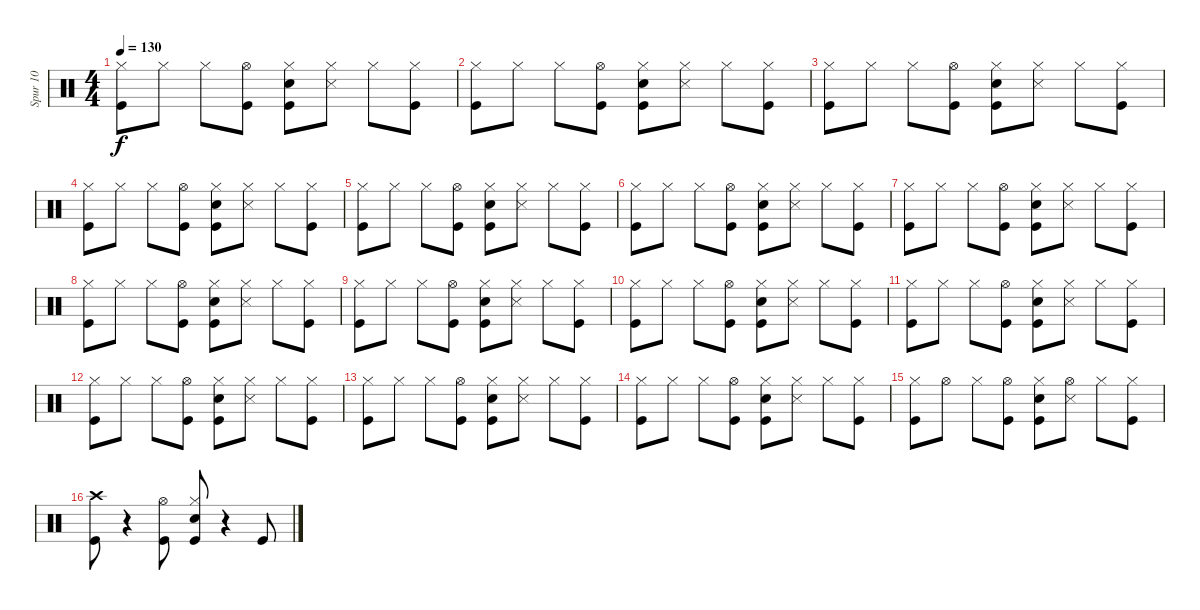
\track ("Spur 10" "Spur 10") {instrument percussion}
\staff {score}
\articulation defaults
\ts (4 4)
\tempo 130
\clef neutral
\ks c
("Kick (hit)" "Hi-Hat (closed)").8{dy f} "Hi-Hat (closed)".8 "Hi-Hat (closed)".8 ("Kick (hit)" "Hi-Hat (open)").8 ("Snare (hit) 2" "Kick (hit)" "Hi-Hat (closed)").8 ("Snare (side stick) 3" "Hi-Hat (closed)").8 "Hi-Hat (closed)".8 ("Kick (hit)" "Hi-Hat (closed)").8 |
("Kick (hit)" "Hi-Hat (closed)").8 "Hi-Hat (closed)".8 "Hi-Hat (closed)".8 ("Kick (hit)" "Hi-Hat (open)").8 ("Snare (hit) 2" "Kick (hit)" "Hi-Hat (closed)").8 ("Snare (side stick) 3" "Hi-Hat (closed)").8 "Hi-Hat (closed)".8 ("Kick (hit)" "Hi-Hat (closed)").8 |
("Kick (hit)" "Hi-Hat (closed)").8 "Hi-Hat (closed)".8 "Hi-Hat (closed)".8 ("Kick (hit)" "Hi-Hat (open)").8 ("Snare (hit) 2" "Kick (hit)" "Hi-Hat (closed)").8 ("Snare (side stick) 3" "Hi-Hat (closed)").8 "Hi-Hat (closed)".8 ("Kick (hit)" "Hi-Hat (closed)").8 |
("Kick (hit)" "Hi-Hat (closed)").8 "Hi-Hat (closed)".8 "Hi-Hat (closed)".8 ("Kick (hit)" "Hi-Hat (open)").8 ("Snare (hit) 2" "Kick (hit)" "Hi-Hat (closed)").8 ("Snare (side stick) 3" "Hi-Hat (closed)").8 "Hi-Hat (closed)".8 ("Kick (hit)" "Hi-Hat (closed)").8 |
("Kick (hit)" "Hi-Hat (closed)").8 "Hi-Hat (closed)".8 "Hi-Hat (closed)".8 ("Kick (hit)" "Hi-Hat (open)").8 ("Snare (hit) 2" "Kick (hit)" "Hi-Hat (closed)").8 ("Snare (side stick) 3" "Hi-Hat (closed)").8 "Hi-Hat (closed)".8 ("Kick (hit)" "Hi-Hat (closed)").8 |
("Kick (hit)" "Hi-Hat (closed)").8 "Hi-Hat (closed)".8 "Hi-Hat (closed)".8 ("Kick (hit)" "Hi-Hat (open)").8 ("Snare (hit) 2" "Kick (hit)" "Hi-Hat (closed)").8 ("Snare (side stick) 3" "Hi-Hat (closed)").8 "Hi-Hat (closed)".8 ("Kick (hit)" "Hi-Hat (closed)").8 |
("Kick (hit)" "Hi-Hat (closed)").8 "Hi-Hat (closed)".8 "Hi-Hat (closed)".8 ("Kick (hit)" "Hi-Hat (open)").8 ("Snare (hit) 2" "Kick (hit)" "Hi-Hat (closed)").8 ("Snare (side stick) 3" "Hi-Hat (closed)").8 "Hi-Hat (closed)".8 ("Kick (hit)" "Hi-Hat (closed)").8 |
("Kick (hit)" "Hi-Hat (closed)").8 "Hi-Hat (closed)".8 "Hi-Hat (closed)".8 ("Kick (hit)" "Hi-Hat (open)").8 ("Snare (hit) 2" "Kick (hit)" "Hi-Hat (closed)").8 ("Snare (side stick) 3" "Hi-Hat (closed)").8 "Hi-Hat (closed)".8 ("Kick (hit)" "Hi-Hat (closed)").8 |
("Kick (hit)" "Hi-Hat (closed)").8 "Hi-Hat (closed)".8 "Hi-Hat (closed)".8 ("Kick (hit)" "Hi-Hat (open)").8 ("Snare (hit) 2" "Kick (hit)" "Hi-Hat (closed)").8 ("Snare (side stick) 3" "Hi-Hat (closed)").8 "Hi-Hat (closed)".8 ("Kick (hit)" "Hi-Hat (closed)").8 |
("Kick (hit)" "Hi-Hat (closed)").8 "Hi-Hat (closed)".8 "Hi-Hat (closed)".8 ("Kick (hit)" "Hi-Hat (open)").8 ("Snare (hit) 2" "Kick (hit)" "Hi-Hat (closed)").8 ("Snare (side stick) 3" "Hi-Hat (closed)").8 "Hi-Hat (closed)".8 ("Kick (hit)" "Hi-Hat (closed)").8 |
("Kick (hit)" "Hi-Hat (closed)").8 "Hi-Hat (closed)".8 "Hi-Hat (closed)".8 ("Kick (hit)" "Hi-Hat (open)").8 ("Snare (hit) 2" "Kick (hit)" "Hi-Hat (closed)").8 ("Snare (side stick) 3" "Hi-Hat (closed)").8 "Hi-Hat (closed)".8 ("Kick (hit)" "Hi-Hat (closed)").8 |
("Kick (hit)" "Hi-Hat (closed)").8 "Hi-Hat (closed)".8 "Hi-Hat (closed)".8 ("Kick (hit)" "Hi-Hat (open)").8 ("Snare (hit) 2" "Kick (hit)" "Hi-Hat (closed)").8 ("Snare (side stick) 3" "Hi-Hat (closed)").8 "Hi-Hat (closed)".8 ("Kick (hit)" "Hi-Hat (closed)").8 |
("Kick (hit)" "Hi-Hat (closed)").8 "Hi-Hat (closed)".8 "Hi-Hat (closed)".8 ("Kick (hit)" "Hi-Hat (open)").8 ("Snare (hit) 2" "Kick (hit)" "Hi-Hat (closed)").8 ("Snare (side stick) 3" "Hi-Hat (closed)").8 "Hi-Hat (closed)".8 ("Kick (hit)" "Hi-Hat (closed)").8 |
("Kick (hit)" "Hi-Hat (closed)").8 "Hi-Hat (closed)".8 "Hi-Hat (closed)".8 ("Kick (hit)" "Hi-Hat (open)").8 ("Snare (hit) 2" "Kick (hit)" "Hi-Hat (closed)").8 ("Snare (side stick) 3" "Hi-Hat (closed)").8 "Hi-Hat (closed)".8 ("Kick (hit)" "Hi-Hat (closed)").8 |
("Kick (hit)" "Hi-Hat (closed)").8 "Hi-Hat (open)".8 "Hi-Hat (closed)".8 ("Kick (hit)" "Hi-Hat (open)").8 ("Snare (hit) 2" "Kick (hit)" "Hi-Hat (closed)").8 ("Snare (side stick) 3" "Hi-Hat (open)").8 "Hi-Hat (closed)".8 ("Kick (hit)" "Hi-Hat (closed)").8 |
("Kick (hit)" "Crash high (hit)").8 r.4 ("Hi-Hat (open)" "Kick (hit)").8 ("Hi-Hat (closed)" "Snare (hit) 2" "Kick (hit)").8 r.4 "Kick (hit)".8
